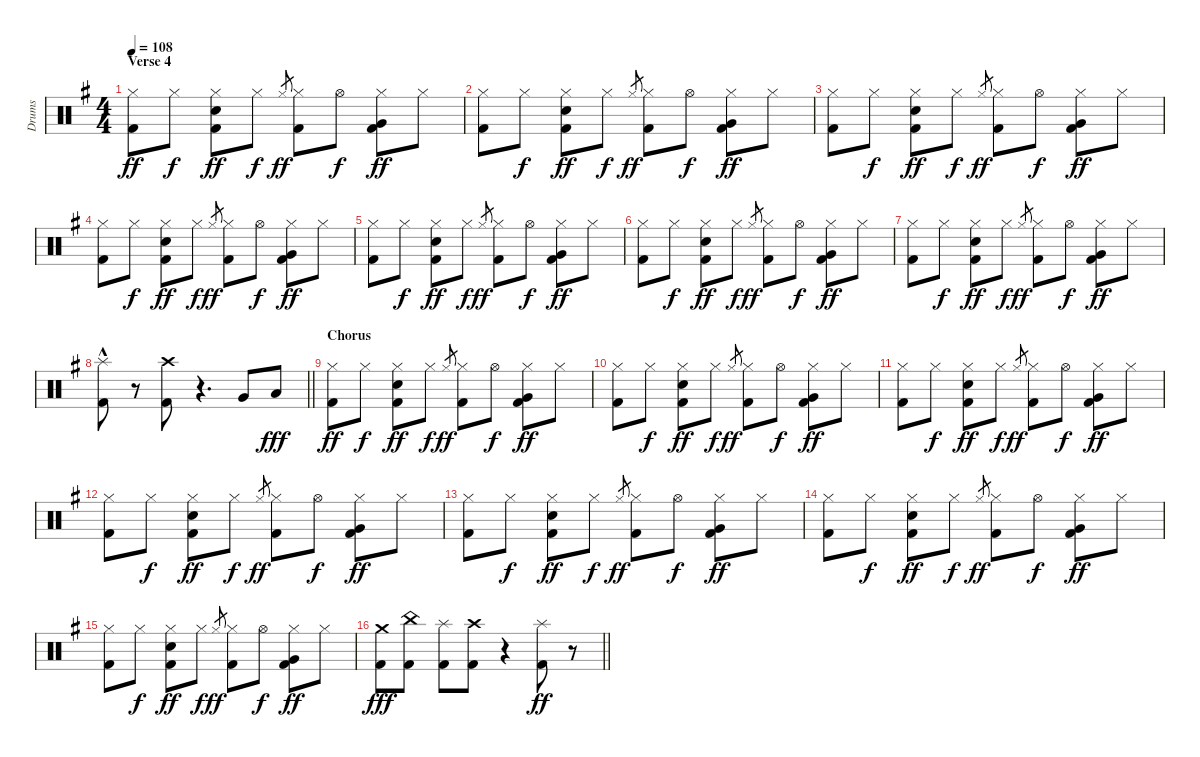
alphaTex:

\track ("Drums" "Drums") {instrument percussion}
\staff {score}
\articulation defaults
\ts (4 4)
\section ("" "Verse 4")
\tempo 108
\clef neutral
\ks g
("Hi-Hat (closed)" "Kick (hit) 2").8{dy ff} "Hi-Hat (closed)".8{dy f} ("Hi-Hat (closed)" "Snare (hit) 2" "Kick (hit) 2").8{dy ff} "Hi-Hat (closed)".8{dy f} "Hi-Hat (closed)".8{gr dy ff} ("Hi-Hat (closed)" "Kick (hit) 2").8 "Hi-Hat (open)".8{dy f} ("Hi-Hat (closed)" "Very Low Tom (hit)" "Kick (hit) 2").8{dy ff} "Hi-Hat (closed)".8 |
("Hi-Hat (closed)" "Kick (hit) 2").8 "Hi-Hat (closed)".8{dy f} ("Hi-Hat (closed)" "Snare (hit) 2" "Kick (hit) 2").8{dy ff} "Hi-Hat (closed)".8{dy f} "Hi-Hat (closed)".8{gr dy ff} ("Hi-Hat (closed)" "Kick (hit) 2").8 "Hi-Hat (open)".8{dy f} ("Hi-Hat (closed)" "Very Low Tom (hit)" "Kick (hit) 2").8{dy ff} "Hi-Hat (closed)".8 |
("Hi-Hat (closed)" "Kick (hit) 2").8 "Hi-Hat (closed)".8{dy f} ("Hi-Hat (closed)" "Snare (hit) 2" "Kick (hit) 2").8{dy ff} "Hi-Hat (closed)".8{dy f} "Hi-Hat (closed)".8{gr dy ff} ("Hi-Hat (closed)" "Kick (hit) 2").8 "Hi-Hat (open)".8{dy f} ("Hi-Hat (closed)" "Very Low Tom (hit)" "Kick (hit) 2").8{dy ff} "Hi-Hat (closed)".8 |
("Hi-Hat (closed)" "Kick (hit) 2").8 "Hi-Hat (closed)".8{dy f} ("Hi-Hat (closed)" "Snare (hit) 2" "Kick (hit) 2").8{dy ff} "Hi-Hat (closed)".8{dy f} "Hi-Hat (closed)".8{gr dy ff} ("Hi-Hat (closed)" "Kick (hit) 2").8 "Hi-Hat (open)".8{dy f} ("Hi-Hat (closed)" "Very Low Tom (hit)" "Kick (hit) 2").8{dy ff} "Hi-Hat (closed)".8 |
("Hi-Hat (closed)" "Kick (hit) 2").8 "Hi-Hat (closed)".8{dy f} ("Hi-Hat (closed)" "Snare (hit) 2" "Kick (hit) 2").8{dy ff} "Hi-Hat (closed)".8{dy f} "Hi-Hat (closed)".8{gr dy ff} ("Hi-Hat (closed)" "Kick (hit) 2").8 "Hi-Hat (open)".8{dy f} ("Hi-Hat (closed)" "Very Low Tom (hit)" "Kick (hit) 2").8{dy ff} "Hi-Hat (closed)".8 |
("Hi-Hat (closed)" "Kick (hit) 2").8 "Hi-Hat (closed)".8{dy f} ("Hi-Hat (closed)" "Snare (hit) 2" "Kick (hit) 2").8{dy ff} "Hi-Hat (closed)".8{dy f} "Hi-Hat (closed)".8{gr dy ff} ("Hi-Hat (closed)" "Kick (hit) 2").8 "Hi-Hat (open)".8{dy f} ("Hi-Hat (closed)" "Very Low Tom (hit)" "Kick (hit) 2").8{dy ff} "Hi-Hat (closed)".8 |
("Hi-Hat (closed)" "Kick (hit) 2").8 "Hi-Hat (closed)".8{dy f} ("Hi-Hat (closed)" "Snare (hit) 2" "Kick (hit) 2").8{dy ff} "Hi-Hat (closed)".8{dy f} "Hi-Hat (closed)".8{gr dy ff} ("Hi-Hat (closed)" "Kick (hit) 2").8 "Hi-Hat (open)".8{dy f} ("Hi-Hat (closed)" "Very Low Tom (hit)" "Kick (hit) 2").8{dy ff} "Hi-Hat (closed)".8 |
\barLineRight lightlight
("Splash (hit)"{hac} "Kick (hit) 2").8 r.8 ("Crash high (hit)" "Kick (hit) 2").8 r.4{d} "Very Low Tom (hit)".8 "Low Floor Tom (hit)".8{dy fff} |
\section ("" "Chorus")
("Hi-Hat (closed)" "Kick (hit) 2").8{dy ff} "Hi-Hat (closed)".8{dy f} ("Hi-Hat (closed)" "Snare (hit) 2" "Kick (hit) 2").8{dy ff} "Hi-Hat (closed)".8{dy f} "Hi-Hat (closed)".8{gr dy ff} ("Hi-Hat (closed)" "Kick (hit) 2").8 "Hi-Hat (open)".8{dy f} ("Hi-Hat (closed)" "Very Low Tom (hit)" "Kick (hit) 2").8{dy ff} "Hi-Hat (closed)".8 |
("Hi-Hat (closed)" "Kick (hit) 2").8 "Hi-Hat (closed)".8{dy f} ("Hi-Hat (closed)" "Snare (hit) 2" "Kick (hit) 2").8{dy ff} "Hi-Hat (closed)".8{dy f} "Hi-Hat (closed)".8{gr dy ff} ("Hi-Hat (closed)" "Kick (hit) 2").8 "Hi-Hat (open)".8{dy f} ("Hi-Hat (closed)" "Very Low Tom (hit)" "Kick (hit) 2").8{dy ff} "Hi-Hat (closed)".8 |
("Hi-Hat (closed)" "Kick (hit) 2").8 "Hi-Hat (closed)".8{dy f} ("Hi-Hat (closed)" "Snare (hit) 2" "Kick (hit) 2").8{dy ff} "Hi-Hat (closed)".8{dy f} "Hi-Hat (closed)".8{gr dy ff} ("Hi-Hat (closed)" "Kick (hit) 2").8 "Hi-Hat (open)".8{dy f} ("Hi-Hat (closed)" "Very Low Tom (hit)" "Kick (hit) 2").8{dy ff} "Hi-Hat (closed)".8 |
("Hi-Hat (closed)" "Kick (hit) 2").8 "Hi-Hat (closed)".8{dy f} ("Hi-Hat (closed)" "Snare (hit) 2" "Kick (hit) 2").8{dy ff} "Hi-Hat (closed)".8{dy f} "Hi-Hat (closed)".8{gr dy ff} ("Hi-Hat (closed)" "Kick (hit) 2").8 "Hi-Hat (open)".8{dy f} ("Hi-Hat (closed)" "Very Low Tom (hit)" "Kick (hit) 2").8{dy ff} "Hi-Hat (closed)".8 |
("Hi-Hat (closed)" "Kick (hit) 2").8 "Hi-Hat (closed)".8{dy f} ("Hi-Hat (closed)" "Snare (hit) 2" "Kick (hit) 2").8{dy ff} "Hi-Hat (closed)".8{dy f} "Hi-Hat (closed)".8{gr dy ff} ("Hi-Hat (closed)" "Kick (hit) 2").8 "Hi-Hat (open)".8{dy f} ("Hi-Hat (closed)" "Very Low Tom (hit)" "Kick (hit) 2").8{dy ff} "Hi-Hat (closed)".8 |
("Hi-Hat (closed)" "Kick (hit) 2").8 "Hi-Hat (closed)".8{dy f} ("Hi-Hat (closed)" "Snare (hit) 2" "Kick (hit) 2").8{dy ff} "Hi-Hat (closed)".8{dy f} "Hi-Hat (closed)".8{gr dy ff} ("Hi-Hat (closed)" "Kick (hit) 2").8 "Hi-Hat (open)".8{dy f} ("Hi-Hat (closed)" "Very Low Tom (hit)" "Kick (hit) 2").8{dy ff} "Hi-Hat (closed)".8 |
("Hi-Hat (closed)" "Kick (hit) 2").8 "Hi-Hat (closed)".8{dy f} ("Hi-Hat (closed)" "Snare (hit) 2" "Kick (hit) 2").8{dy ff} "Hi-Hat (closed)".8{dy f} "Hi-Hat (closed)".8{gr dy ff} ("Hi-Hat (closed)" "Kick (hit) 2").8 "Hi-Hat (open)".8{dy f} ("Hi-Hat (closed)" "Very Low Tom (hit)" "Kick (hit) 2").8{dy ff} "Hi-Hat (closed)".8 |
\barLineRight lightlight
("Crash medium (hit)" "Kick (hit) 2").8{dy fff} ("China (hit)" "Kick (hit) 2").8 ("Splash (hit)" "Kick (hit) 2").8 ("Crash high (hit)" "Kick (hit) 2").8 r.4 ("Splash (hit)" "Kick (hit) 2").8{dy ff} r.8
